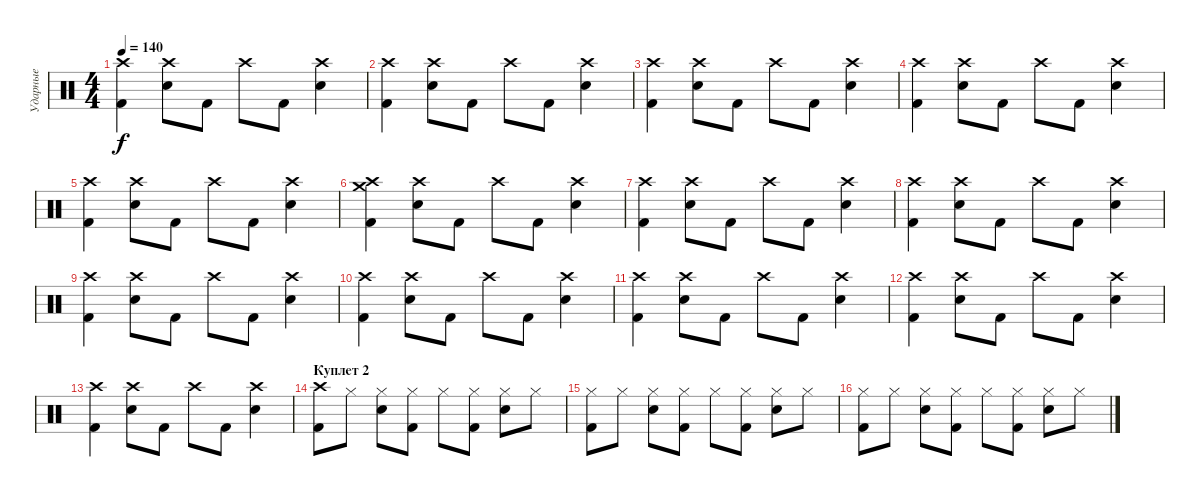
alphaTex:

\track ("Ударные" "Ударные") {instrument percussion}
\staff {score}
\articulation defaults
\ts (4 4)
\tempo 140
\clef neutral
\ks c
("Crash high (hit)" "Kick (hit) 2").4{dy f} ("Crash high (hit)" "Electric Snare (hit)").8 "Kick (hit) 2".8 "Crash high (hit)".8 "Kick (hit) 2".8 ("Crash high (hit)" "Electric Snare (hit)").4 |
("Crash high (hit)" "Kick (hit) 2").4 ("Crash high (hit)" "Electric Snare (hit)").8 "Kick (hit) 2".8 "Crash high (hit)".8 "Kick (hit) 2".8 ("Crash high (hit)" "Electric Snare (hit)").4 |
("Crash high (hit)" "Kick (hit) 2").4 ("Crash high (hit)" "Electric Snare (hit)").8 "Kick (hit) 2".8 "Crash high (hit)".8 "Kick (hit) 2".8 ("Crash high (hit)" "Electric Snare (hit)").4 |
("Crash high (hit)" "Kick (hit) 2").4 ("Crash high (hit)" "Electric Snare (hit)").8 "Kick (hit) 2".8 "Crash high (hit)".8 "Kick (hit) 2".8 ("Crash high (hit)" "Electric Snare (hit)").4 |
("Crash high (hit)" "Kick (hit) 2").4 ("Crash high (hit)" "Electric Snare (hit)").8 "Kick (hit) 2".8 "Crash high (hit)".8 "Kick (hit) 2".8 ("Crash high (hit)" "Electric Snare (hit)").4 |
("Crash high (hit)" "Crash medium (hit)" "Kick (hit) 2").4 ("Crash high (hit)" "Electric Snare (hit)").8 "Kick (hit) 2".8 "Crash high (hit)".8 "Kick (hit) 2".8 ("Crash high (hit)" "Electric Snare (hit)").4 |
("Crash high (hit)" "Kick (hit) 2").4 ("Crash high (hit)" "Electric Snare (hit)").8 "Kick (hit) 2".8 "Crash high (hit)".8 "Kick (hit) 2".8 ("Crash high (hit)" "Electric Snare (hit)").4 |
("Crash high (hit)" "Kick (hit) 2").4 ("Crash high (hit)" "Electric Snare (hit)").8 "Kick (hit) 2".8 "Crash high (hit)".8 "Kick (hit) 2".8 ("Crash high (hit)" "Electric Snare (hit)").4 |
("Crash high (hit)" "Kick (hit) 2").4 ("Crash high (hit)" "Electric Snare (hit)").8 "Kick (hit) 2".8 "Crash high (hit)".8 "Kick (hit) 2".8 ("Crash high (hit)" "Electric Snare (hit)").4 |
("Crash high (hit)" "Kick (hit) 2").4 ("Crash high (hit)" "Electric Snare (hit)").8 "Kick (hit) 2".8 "Crash high (hit)".8 "Kick (hit) 2".8 ("Crash high (hit)" "Electric Snare (hit)").4 |
("Crash high (hit)" "Kick (hit) 2").4 ("Crash high (hit)" "Electric Snare (hit)").8 "Kick (hit) 2".8 "Crash high (hit)".8 "Kick (hit) 2".8 ("Crash high (hit)" "Electric Snare (hit)").4 |
("Crash high (hit)" "Kick (hit) 2").4 ("Crash high (hit)" "Electric Snare (hit)").8 "Kick (hit) 2".8 "Crash high (hit)".8 "Kick (hit) 2".8 ("Crash high (hit)" "Electric Snare (hit)").4 |
("Crash high (hit)" "Kick (hit) 2").4 ("Crash high (hit)" "Electric Snare (hit)").8 "Kick (hit) 2".8 "Crash high (hit)".8 "Kick (hit) 2".8 ("Crash high (hit)" "Electric Snare (hit)").4 |
\section ("" "Куплет 2")
("Crash high (hit)" "Kick (hit) 2").8 "Hi-Hat (closed)".8 ("Hi-Hat (closed)" "Electric Snare (hit)").8 ("Hi-Hat (closed)" "Kick (hit) 2").8 "Hi-Hat (closed)".8 ("Hi-Hat (closed)" "Kick (hit) 2").8 ("Hi-Hat (closed)" "Electric Snare (hit)").8 "Hi-Hat (closed)".8 |
("Hi-Hat (closed)" "Kick (hit) 2").8 "Hi-Hat (closed)".8 ("Hi-Hat (closed)" "Electric Snare (hit)").8 ("Hi-Hat (closed)" "Kick (hit) 2").8 "Hi-Hat (closed)".8 ("Hi-Hat (closed)" "Kick (hit) 2").8 ("Hi-Hat (closed)" "Electric Snare (hit)").8 "Hi-Hat (closed)".8 |
("Hi-Hat (closed)" "Kick (hit) 2").8 "Hi-Hat (closed)".8 ("Hi-Hat (closed)" "Electric Snare (hit)").8 ("Hi-Hat (closed)" "Kick (hit) 2").8 "Hi-Hat (closed)".8 ("Hi-Hat (closed)" "Kick (hit) 2").8 ("Hi-Hat (closed)" "Electric Snare (hit)").8 "Hi-Hat (closed)".8
